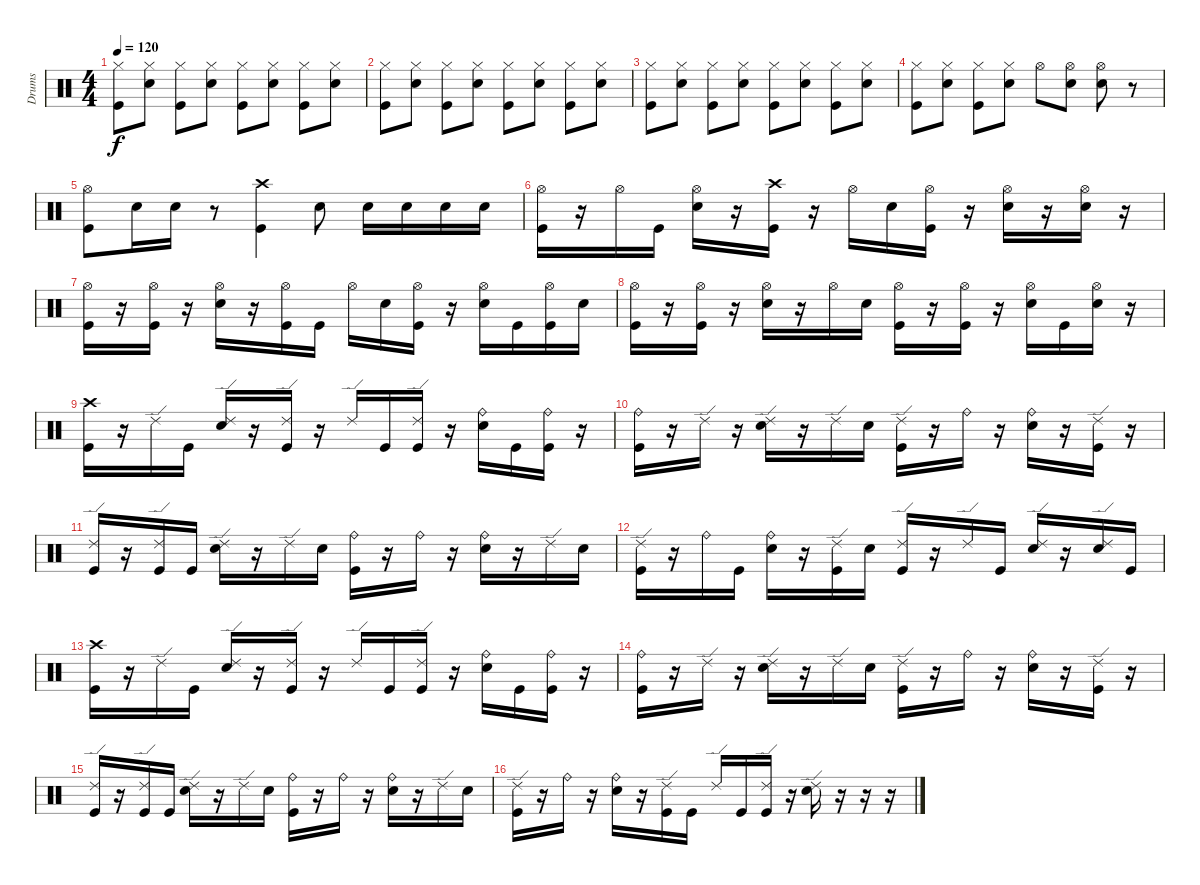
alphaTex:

\track ("Drums" "Drums") {instrument percussion}
\staff {score}
\articulation defaults
\ts (4 4)
\tempo 120
\clef neutral
\ks c
("Hi-Hat (closed)" "Kick (hit)").8{dy f} ("Hi-Hat (closed)" "Electric Snare (hit)").8 ("Hi-Hat (closed)" "Kick (hit)").8 ("Hi-Hat (closed)" "Electric Snare (hit)").8 ("Hi-Hat (closed)" "Kick (hit)").8 ("Hi-Hat (closed)" "Electric Snare (hit)").8 ("Hi-Hat (closed)" "Kick (hit)").8 ("Hi-Hat (closed)" "Electric Snare (hit)").8 |
("Hi-Hat (closed)" "Kick (hit)").8 ("Hi-Hat (closed)" "Electric Snare (hit)").8 ("Hi-Hat (closed)" "Kick (hit)").8 ("Hi-Hat (closed)" "Electric Snare (hit)").8 ("Hi-Hat (closed)" "Kick (hit)").8 ("Hi-Hat (closed)" "Electric Snare (hit)").8 ("Hi-Hat (closed)" "Kick (hit)").8 ("Hi-Hat (closed)" "Electric Snare (hit)").8 |
("Hi-Hat (closed)" "Kick (hit)").8 ("Hi-Hat (closed)" "Electric Snare (hit)").8 ("Hi-Hat (closed)" "Kick (hit)").8 ("Hi-Hat (closed)" "Electric Snare (hit)").8 ("Hi-Hat (closed)" "Kick (hit)").8 ("Hi-Hat (closed)" "Electric Snare (hit)").8 ("Hi-Hat (closed)" "Kick (hit)").8 ("Hi-Hat (closed)" "Electric Snare (hit)").8 |
("Hi-Hat (closed)" "Kick (hit)").8 ("Hi-Hat (closed)" "Electric Snare (hit)").8 ("Hi-Hat (closed)" "Kick (hit)").8 ("Hi-Hat (closed)" "Electric Snare (hit)").8 "Hi-Hat (open)".8 ("Hi-Hat (open)" "Electric Snare (hit)").8 ("Hi-Hat (open)" "Electric Snare (hit)").8 r.8 |
("Hi-Hat (open)" "Kick (hit)").8 "Electric Snare (hit)".16 "Electric Snare (hit)".16 r.8 ("Crash high (hit)" "Kick (hit)").4 "Electric Snare (hit)".8 "Electric Snare (hit)".16 "Electric Snare (hit)".16 "Electric Snare (hit)".16 "Electric Snare (hit)".16 |
("Hi-Hat (open)" "Kick (hit)").16 r.16 "Hi-Hat (open)".16 "Kick (hit)".16 ("Hi-Hat (open)" "Electric Snare (hit)").16 r.16 ("Crash high (hit)" "Kick (hit)").16 r.16 "Hi-Hat (open)".16 "Electric Snare (hit)".16 ("Hi-Hat (open)" "Kick (hit)").16 r.16 ("Hi-Hat (open)" "Electric Snare (hit)").16 r.16 ("Hi-Hat (open)" "Electric Snare (hit)").16 r.16 |
("Hi-Hat (open)" "Kick (hit)").16 r.16 ("Hi-Hat (open)" "Kick (hit)").16 r.16 ("Hi-Hat (open)" "Electric Snare (hit)").16 r.16 ("Hi-Hat (open)" "Kick (hit)").16 "Kick (hit)".16 "Hi-Hat (open)".16 "Electric Snare (hit)".16 ("Hi-Hat (open)" "Kick (hit)").16 r.16 ("Hi-Hat (open)" "Electric Snare (hit)").16 "Kick (hit)".16 ("Hi-Hat (open)" "Kick (hit)").16 "Electric Snare (hit)".16 |
("Hi-Hat (open)" "Kick (hit)").16 r.16 ("Hi-Hat (open)" "Kick (hit)").16 r.16 ("Hi-Hat (open)" "Electric Snare (hit)").16 r.16 "Hi-Hat (open)".16 "Electric Snare (hit)".16 ("Hi-Hat (open)" "Kick (hit)").16 r.16 ("Hi-Hat (open)" "Kick (hit)").16 r.16 ("Hi-Hat (open)" "Electric Snare (hit)").16 "Kick (hit)".16 ("Hi-Hat (open)" "Electric Snare (hit)").16 r.16 |
("Crash high (hit)" "Kick (hit)").16 r.16 "Ride (edge) 2".16 "Kick (hit)".16 ("Ride (edge) 2" "Electric Snare (hit)").16 r.16 ("Ride (edge) 2" "Kick (hit)").16 r.16 "Ride (edge) 2".16 "Kick (hit)".16 ("Ride (edge) 2" "Kick (hit)").16 r.16 ("Ride (bell)" "Electric Snare (hit)").16 "Kick (hit)".16 ("Ride (bell)" "Kick (hit)").16 r.16 |
("Ride (bell)" "Kick (hit)").16 r.16 "Ride (edge) 2".16 r.16 ("Ride (edge) 2" "Electric Snare (hit)").16 r.16 "Ride (edge) 2".16 "Electric Snare (hit)".16 ("Ride (edge) 2" "Kick (hit)").16 r.16 "Ride (bell)".16 r.16 ("Ride (bell)" "Electric Snare (hit)").16 r.16 ("Ride (edge) 2" "Kick (hit)").16 r.16 |
("Ride (edge) 2" "Kick (hit)").16 r.16 ("Ride (edge) 2" "Kick (hit)").16 "Kick (hit)".16 ("Ride (edge) 2" "Electric Snare (hit)").16 r.16 "Ride (edge) 2".16 "Electric Snare (hit)".16 ("Ride (bell)" "Kick (hit)").16 r.16 "Ride (bell)".16 r.16 ("Ride (bell)" "Electric Snare (hit)").16 r.16 "Ride (edge) 2".16 "Electric Snare (hit)".16 |
("Ride (edge) 2" "Kick (hit)").16 r.16 "Ride (bell)".16 "Kick (hit)".16 ("Ride (bell)" "Electric Snare (hit)").16 r.16 ("Ride (edge) 2" "Kick (hit)").16 "Electric Snare (hit)".16 ("Ride (edge) 2" "Kick (hit)").16 r.16 "Ride (edge) 2".16 "Kick (hit)".16 ("Ride (edge) 2" "Electric Snare (hit)").16 r.16 ("Ride (edge) 2" "Electric Snare (hit)").16 "Kick (hit)".16 |
("Crash high (hit)" "Kick (hit)").16 r.16 "Ride (edge) 2".16 "Kick (hit)".16 ("Ride (edge) 2" "Electric Snare (hit)").16 r.16 ("Ride (edge) 2" "Kick (hit)").16 r.16 "Ride (edge) 2".16 "Kick (hit)".16 ("Ride (edge) 2" "Kick (hit)").16 r.16 ("Ride (bell)" "Electric Snare (hit)").16 "Kick (hit)".16 ("Ride (bell)" "Kick (hit)").16 r.16 |
("Ride (bell)" "Kick (hit)").16 r.16 "Ride (edge) 2".16 r.16 ("Ride (edge) 2" "Electric Snare (hit)").16 r.16 "Ride (edge) 2".16 "Electric Snare (hit)".16 ("Ride (edge) 2" "Kick (hit)").16 r.16 "Ride (bell)".16 r.16 ("Ride (bell)" "Electric Snare (hit)").16 r.16 ("Ride (edge) 2" "Kick (hit)").16 r.16 |
("Ride (edge) 2" "Kick (hit)").16 r.16 ("Ride (edge) 2" "Kick (hit)").16 "Kick (hit)".16 ("Ride (edge) 2" "Electric Snare (hit)").16 r.16 "Ride (edge) 2".16 "Electric Snare (hit)".16 ("Ride (bell)" "Kick (hit)").16 r.16 "Ride (bell)".16 r.16 ("Ride (bell)" "Electric Snare (hit)").16 r.16 "Ride (edge) 2".16 "Electric Snare (hit)".16 |
("Ride (edge) 2" "Kick (hit)").16 r.16 "Ride (bell)".16 r.16 ("Ride (bell)" "Electric Snare (hit)").16 r.16 ("Ride (edge) 2" "Kick (hit)").16 "Kick (hit)".16 "Ride (edge) 2".16 "Kick (hit)".16 ("Ride (edge) 2" "Kick (hit)").16 r.16 ("Ride (edge) 2" "Electric Snare (hit)").16 r.16 r.16 r.16
